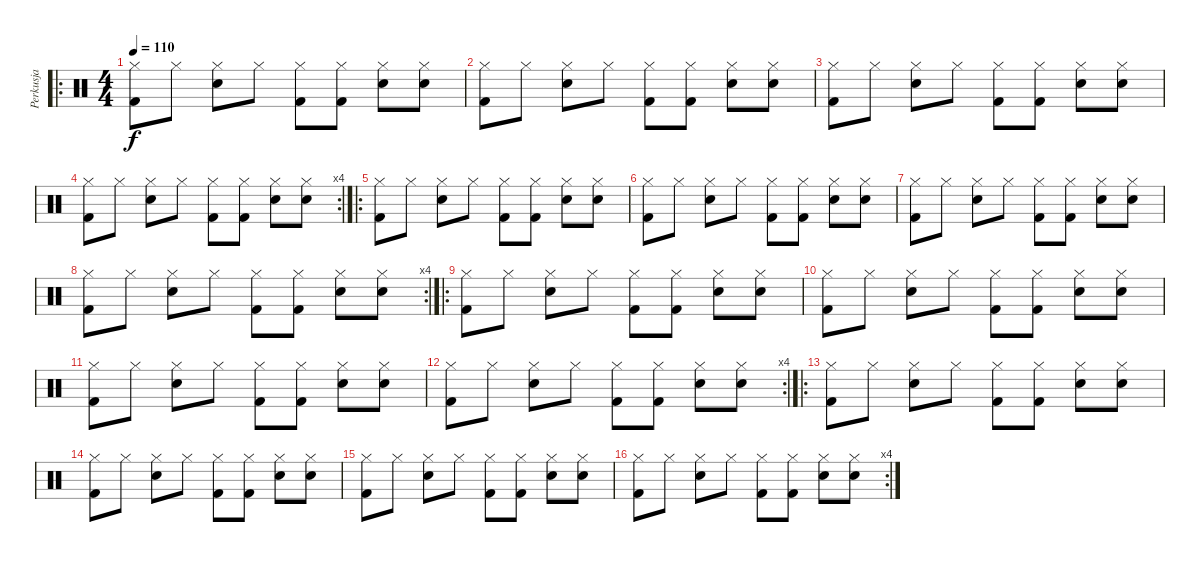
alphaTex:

\track ("Perkusja" "Perkusja") {instrument percussion}
\staff {score}
\articulation defaults
\ro
\ts (4 4)
\tempo 110
\clef neutral
\ks c
("Kick (hit) 2" "Hi-Hat (closed)").8{dy f} "Hi-Hat (closed)".8 ("Snare (hit) 2" "Hi-Hat (closed)").8 "Hi-Hat (closed)".8 ("Kick (hit) 2" "Hi-Hat (closed)").8 ("Kick (hit) 2" "Hi-Hat (closed)").8 ("Snare (hit) 2" "Hi-Hat (closed)").8 ("Snare (hit) 2" "Hi-Hat (closed)").8 |
("Kick (hit) 2" "Hi-Hat (closed)").8 "Hi-Hat (closed)".8 ("Snare (hit) 2" "Hi-Hat (closed)").8 "Hi-Hat (closed)".8 ("Kick (hit) 2" "Hi-Hat (closed)").8 ("Kick (hit) 2" "Hi-Hat (closed)").8 ("Snare (hit) 2" "Hi-Hat (closed)").8 ("Snare (hit) 2" "Hi-Hat (closed)").8 |
("Kick (hit) 2" "Hi-Hat (closed)").8 "Hi-Hat (closed)".8 ("Snare (hit) 2" "Hi-Hat (closed)").8 "Hi-Hat (closed)".8 ("Kick (hit) 2" "Hi-Hat (closed)").8 ("Kick (hit) 2" "Hi-Hat (closed)").8 ("Snare (hit) 2" "Hi-Hat (closed)").8 ("Snare (hit) 2" "Hi-Hat (closed)").8 |
\rc 4
("Kick (hit) 2" "Hi-Hat (closed)").8 "Hi-Hat (closed)".8 ("Snare (hit) 2" "Hi-Hat (closed)").8 "Hi-Hat (closed)".8 ("Kick (hit) 2" "Hi-Hat (closed)").8 ("Kick (hit) 2" "Hi-Hat (closed)").8 ("Snare (hit) 2" "Hi-Hat (closed)").8 ("Snare (hit) 2" "Hi-Hat (closed)").8 |
\ro
("Kick (hit) 2" "Hi-Hat (closed)").8 "Hi-Hat (closed)".8 ("Snare (hit) 2" "Hi-Hat (closed)").8 "Hi-Hat (closed)".8 ("Kick (hit) 2" "Hi-Hat (closed)").8 ("Kick (hit) 2" "Hi-Hat (closed)").8 ("Snare (hit) 2" "Hi-Hat (closed)").8 ("Snare (hit) 2" "Hi-Hat (closed)").8 |
("Kick (hit) 2" "Hi-Hat (closed)").8 "Hi-Hat (closed)".8 ("Snare (hit) 2" "Hi-Hat (closed)").8 "Hi-Hat (closed)".8 ("Kick (hit) 2" "Hi-Hat (closed)").8 ("Kick (hit) 2" "Hi-Hat (closed)").8 ("Snare (hit) 2" "Hi-Hat (closed)").8 ("Snare (hit) 2" "Hi-Hat (closed)").8 |
("Kick (hit) 2" "Hi-Hat (closed)").8 "Hi-Hat (closed)".8 ("Snare (hit) 2" "Hi-Hat (closed)").8 "Hi-Hat (closed)".8 ("Kick (hit) 2" "Hi-Hat (closed)").8 ("Kick (hit) 2" "Hi-Hat (closed)").8 ("Snare (hit) 2" "Hi-Hat (closed)").8 ("Snare (hit) 2" "Hi-Hat (closed)").8 |
\rc 4
("Kick (hit) 2" "Hi-Hat (closed)").8 "Hi-Hat (closed)".8 ("Snare (hit) 2" "Hi-Hat (closed)").8 "Hi-Hat (closed)".8 ("Kick (hit) 2" "Hi-Hat (closed)").8 ("Kick (hit) 2" "Hi-Hat (closed)").8 ("Snare (hit) 2" "Hi-Hat (closed)").8 ("Snare (hit) 2" "Hi-Hat (closed)").8 |
\ro
("Kick (hit) 2" "Hi-Hat (closed)").8 "Hi-Hat (closed)".8 ("Snare (hit) 2" "Hi-Hat (closed)").8 "Hi-Hat (closed)".8 ("Kick (hit) 2" "Hi-Hat (closed)").8 ("Kick (hit) 2" "Hi-Hat (closed)").8 ("Snare (hit) 2" "Hi-Hat (closed)").8 ("Snare (hit) 2" "Hi-Hat (closed)").8 |
("Kick (hit) 2" "Hi-Hat (closed)").8 "Hi-Hat (closed)".8 ("Snare (hit) 2" "Hi-Hat (closed)").8 "Hi-Hat (closed)".8 ("Kick (hit) 2" "Hi-Hat (closed)").8 ("Kick (hit) 2" "Hi-Hat (closed)").8 ("Snare (hit) 2" "Hi-Hat (closed)").8 ("Snare (hit) 2" "Hi-Hat (closed)").8 |
("Kick (hit) 2" "Hi-Hat (closed)").8 "Hi-Hat (closed)".8 ("Snare (hit) 2" "Hi-Hat (closed)").8 "Hi-Hat (closed)".8 ("Kick (hit) 2" "Hi-Hat (closed)").8 ("Kick (hit) 2" "Hi-Hat (closed)").8 ("Snare (hit) 2" "Hi-Hat (closed)").8 ("Snare (hit) 2" "Hi-Hat (closed)").8 |
\rc 4
("Kick (hit) 2" "Hi-Hat (closed)").8 "Hi-Hat (closed)".8 ("Snare (hit) 2" "Hi-Hat (closed)").8 "Hi-Hat (closed)".8 ("Kick (hit) 2" "Hi-Hat (closed)").8 ("Kick (hit) 2" "Hi-Hat (closed)").8 ("Snare (hit) 2" "Hi-Hat (closed)").8 ("Snare (hit) 2" "Hi-Hat (closed)").8 |
\ro
("Kick (hit) 2" "Hi-Hat (closed)").8 "Hi-Hat (closed)".8 ("Snare (hit) 2" "Hi-Hat (closed)").8 "Hi-Hat (closed)".8 ("Kick (hit) 2" "Hi-Hat (closed)").8 ("Kick (hit) 2" "Hi-Hat (closed)").8 ("Snare (hit) 2" "Hi-Hat (closed)").8 ("Snare (hit) 2" "Hi-Hat (closed)").8 |
("Kick (hit) 2" "Hi-Hat (closed)").8 "Hi-Hat (closed)".8 ("Snare (hit) 2" "Hi-Hat (closed)").8 "Hi-Hat (closed)".8 ("Kick (hit) 2" "Hi-Hat (closed)").8 ("Kick (hit) 2" "Hi-Hat (closed)").8 ("Snare (hit) 2" "Hi-Hat (closed)").8 ("Snare (hit) 2" "Hi-Hat (closed)").8 |
("Kick (hit) 2" "Hi-Hat (closed)").8 "Hi-Hat (closed)".8 ("Snare (hit) 2" "Hi-Hat (closed)").8 "Hi-Hat (closed)".8 ("Kick (hit) 2" "Hi-Hat (closed)").8 ("Kick (hit) 2" "Hi-Hat (closed)").8 ("Snare (hit) 2" "Hi-Hat (closed)").8 ("Snare (hit) 2" "Hi-Hat (closed)").8 |
\rc 4
("Kick (hit) 2" "Hi-Hat (closed)").8 "Hi-Hat (closed)".8 ("Snare (hit) 2" "Hi-Hat (closed)").8 "Hi-Hat (closed)".8 ("Kick (hit) 2" "Hi-Hat (closed)").8 ("Kick (hit) 2" "Hi-Hat (closed)").8 ("Snare (hit) 2" "Hi-Hat (closed)").8 ("Snare (hit) 2" "Hi-Hat (closed)").8
